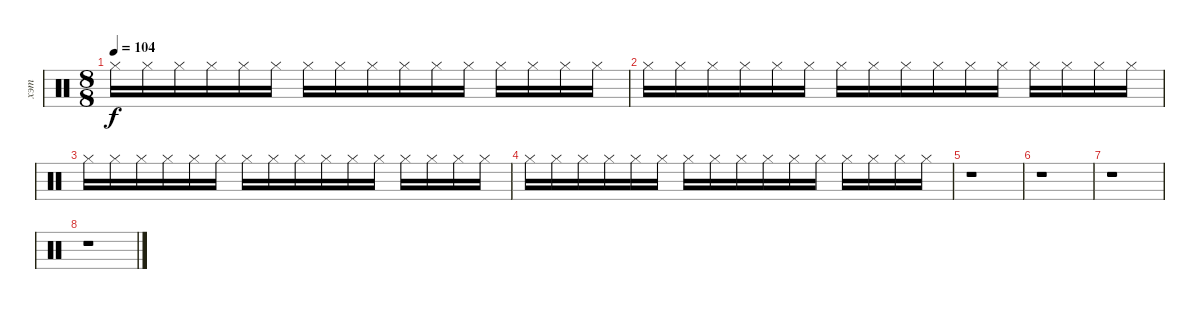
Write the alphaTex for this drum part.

\track ("хэт" "хэт") {instrument percussion}
\staff {score}
\articulation defaults
\ts (8 8)
\tempo 104
\clef neutral
\ks c "Hi-Hat (closed)".16{dy f} "Hi-Hat (closed)".16 "Hi-Hat (closed)".16 "Hi-Hat (closed)".16 "Hi-Hat (closed)".16 "Hi-Hat (closed)".16 "Hi-Hat (closed)".16 "Hi-Hat (closed)".16 "Hi-Hat (closed)".16 "Hi-Hat (closed)".16 "Hi-Hat (closed)".16 "Hi-Hat (closed)".16 "Hi-Hat (closed)".16 "Hi-Hat (closed)".16 "Hi-Hat (closed)".16 "Hi-Hat (closed)".16
|
"Hi-Hat (closed)".16 "Hi-Hat (closed)".16 "Hi-Hat (closed)".16 "Hi-Hat (closed)".16 "Hi-Hat (closed)".16 "Hi-Hat (closed)".16 "Hi-Hat (closed)".16 "Hi-Hat (closed)".16 "Hi-Hat (closed)".16 "Hi-Hat (closed)".16 "Hi-Hat (closed)".16 "Hi-Hat (closed)".16 "Hi-Hat (closed)".16 "Hi-Hat (closed)".16 "Hi-Hat (closed)".16 "Hi-Hat (closed)".16 |
"Hi-Hat (closed)".16 "Hi-Hat (closed)".16 "Hi-Hat (closed)".16 "Hi-Hat (closed)".16 "Hi-Hat (closed)".16 "Hi-Hat (closed)".16 "Hi-Hat (closed)".16 "Hi-Hat (closed)".16 "Hi-Hat (closed)".16 "Hi-Hat (closed)".16 "Hi-Hat (closed)".16 "Hi-Hat (closed)".16 "Hi-Hat (closed)".16 "Hi-Hat (closed)".16 "Hi-Hat (closed)".16 "Hi-Hat (closed)".16 |
"Hi-Hat (closed)".16 "Hi-Hat (closed)".16 "Hi-Hat (closed)".16 "Hi-Hat (closed)".16 "Hi-Hat (closed)".16 "Hi-Hat (closed)".16 "Hi-Hat (closed)".16 "Hi-Hat (closed)".16 "Hi-Hat (closed)".16 "Hi-Hat (closed)".16 "Hi-Hat (closed)".16 "Hi-Hat (closed)".16 "Hi-Hat (closed)".16 "Hi-Hat (closed)".16 "Hi-Hat (closed)".16 "Hi-Hat (closed)".16 |
r.1 |
r.1 |
r.1 |
r.1
